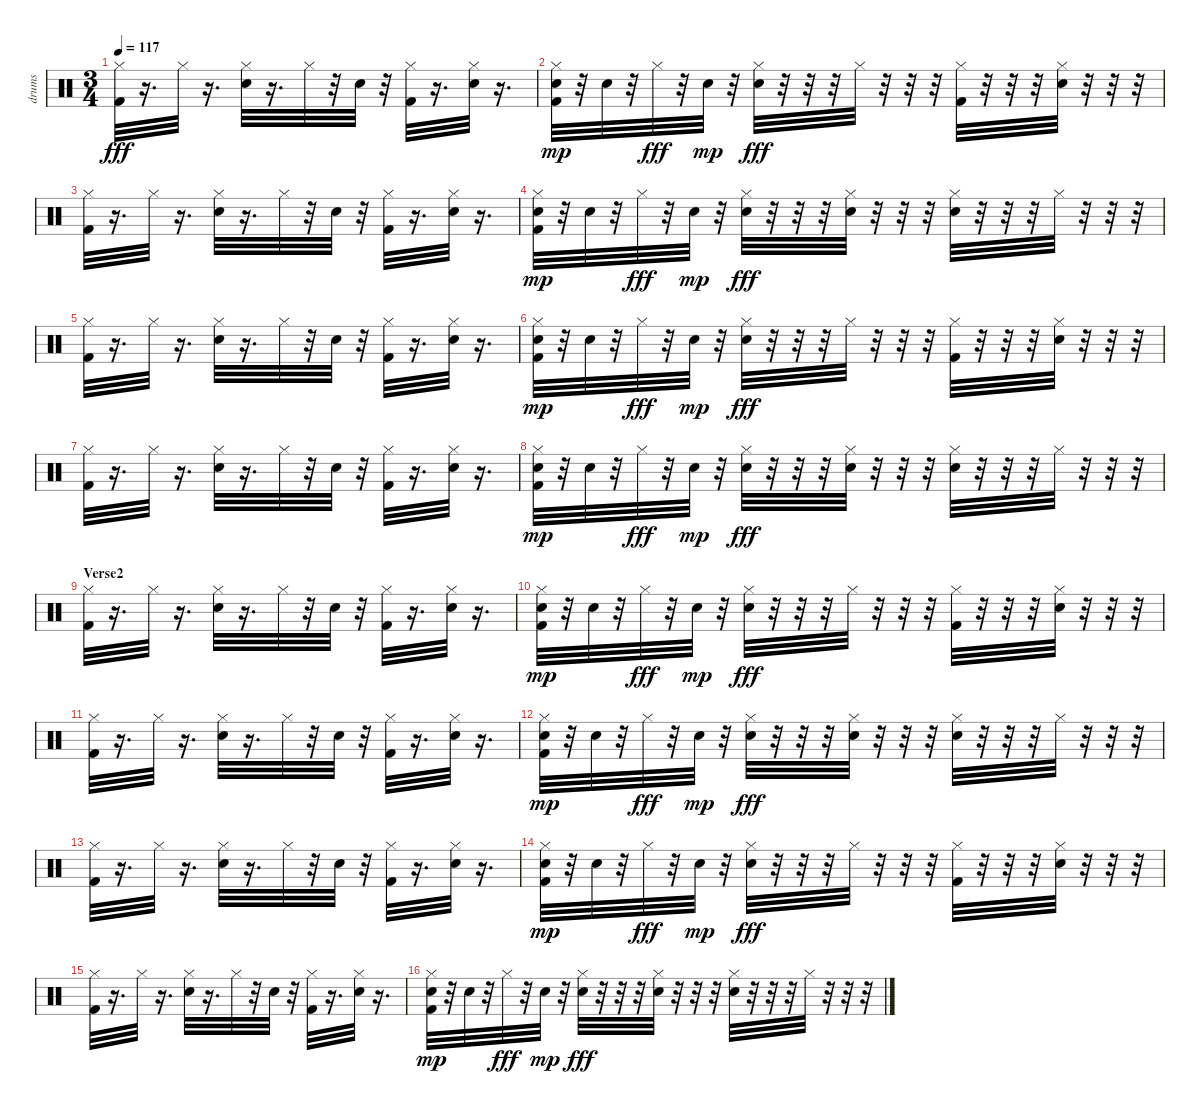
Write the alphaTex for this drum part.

\track ("drums" "drums") {instrument percussion}
\staff {score}
\articulation defaults
\ts (3 4)
\tempo 117
\clef neutral
\ks c
("Hi-Hat (closed)" "Kick (hit) 2").32{dy fff} r.16{d} "Hi-Hat (closed)".32 r.16{d} ("Electric Snare (hit)" "Hi-Hat (closed)").32 r.16{d} "Hi-Hat (closed)".32 r.32 "Electric Snare (hit)".32 r.32 ("Hi-Hat (closed)" "Kick (hit) 2").32 r.16{d} ("Electric Snare (hit)" "Hi-Hat (closed)").32 r.16{d} |
("Hi-Hat (closed)" "Kick (hit) 2" "Electric Snare (hit)").32{dy mp} r.32 "Electric Snare (hit)".32 r.32 "Hi-Hat (closed)".32{dy fff} r.32 "Electric Snare (hit)".32{dy mp} r.32 ("Electric Snare (hit)" "Hi-Hat (closed)").32{dy fff} r.32 r.32 r.32 "Hi-Hat (closed)".32 r.32 r.32 r.32 ("Hi-Hat (closed)" "Kick (hit) 2").32 r.32 r.32 r.32 ("Electric Snare (hit)" "Hi-Hat (closed)").32 r.32 r.32 r.32 |
("Hi-Hat (closed)" "Kick (hit) 2").32 r.16{d} "Hi-Hat (closed)".32 r.16{d} ("Electric Snare (hit)" "Hi-Hat (closed)").32 r.16{d} "Hi-Hat (closed)".32 r.32 "Electric Snare (hit)".32 r.32 ("Hi-Hat (closed)" "Kick (hit) 2").32 r.16{d} ("Electric Snare (hit)" "Hi-Hat (closed)").32 r.16{d} |
("Hi-Hat (closed)" "Kick (hit) 2" "Electric Snare (hit)").32{dy mp} r.32 "Electric Snare (hit)".32 r.32 "Hi-Hat (closed)".32{dy fff} r.32 "Electric Snare (hit)".32{dy mp} r.32 ("Electric Snare (hit)" "Hi-Hat (closed)").32{dy fff} r.32 r.32 r.32 ("Hi-Hat (closed)" "Electric Snare (hit)").32 r.32 r.32 r.32 ("Hi-Hat (closed)" "Electric Snare (hit)").32 r.32 r.32 r.32 "Hi-Hat (closed)".32 r.32 r.32 r.32 |
("Hi-Hat (closed)" "Kick (hit) 2").32 r.16{d} "Hi-Hat (closed)".32 r.16{d} ("Electric Snare (hit)" "Hi-Hat (closed)").32 r.16{d} "Hi-Hat (closed)".32 r.32 "Electric Snare (hit)".32 r.32 ("Hi-Hat (closed)" "Kick (hit) 2").32 r.16{d} ("Electric Snare (hit)" "Hi-Hat (closed)").32 r.16{d} |
("Hi-Hat (closed)" "Kick (hit) 2" "Electric Snare (hit)").32{dy mp} r.32 "Electric Snare (hit)".32 r.32 "Hi-Hat (closed)".32{dy fff} r.32 "Electric Snare (hit)".32{dy mp} r.32 ("Electric Snare (hit)" "Hi-Hat (closed)").32{dy fff} r.32 r.32 r.32 "Hi-Hat (closed)".32 r.32 r.32 r.32 ("Hi-Hat (closed)" "Kick (hit) 2").32 r.32 r.32 r.32 ("Electric Snare (hit)" "Hi-Hat (closed)").32 r.32 r.32 r.32 |
("Hi-Hat (closed)" "Kick (hit) 2").32 r.16{d} "Hi-Hat (closed)".32 r.16{d} ("Electric Snare (hit)" "Hi-Hat (closed)").32 r.16{d} "Hi-Hat (closed)".32 r.32 "Electric Snare (hit)".32 r.32 ("Hi-Hat (closed)" "Kick (hit) 2").32 r.16{d} ("Electric Snare (hit)" "Hi-Hat (closed)").32 r.16{d} |
("Hi-Hat (closed)" "Kick (hit) 2" "Electric Snare (hit)").32{dy mp} r.32 "Electric Snare (hit)".32 r.32 "Hi-Hat (closed)".32{dy fff} r.32 "Electric Snare (hit)".32{dy mp} r.32 ("Electric Snare (hit)" "Hi-Hat (closed)").32{dy fff} r.32 r.32 r.32 ("Hi-Hat (closed)" "Electric Snare (hit)").32 r.32 r.32 r.32 ("Hi-Hat (closed)" "Electric Snare (hit)").32 r.32 r.32 r.32 "Hi-Hat (closed)".32 r.32 r.32 r.32 |
\section ("" "Verse2")
("Hi-Hat (closed)" "Kick (hit) 2").32 r.16{d} "Hi-Hat (closed)".32 r.16{d} ("Electric Snare (hit)" "Hi-Hat (closed)").32 r.16{d} "Hi-Hat (closed)".32 r.32 "Electric Snare (hit)".32 r.32 ("Hi-Hat (closed)" "Kick (hit) 2").32 r.16{d} ("Electric Snare (hit)" "Hi-Hat (closed)").32 r.16{d} |
("Hi-Hat (closed)" "Kick (hit) 2" "Electric Snare (hit)").32{dy mp} r.32 "Electric Snare (hit)".32 r.32 "Hi-Hat (closed)".32{dy fff} r.32 "Electric Snare (hit)".32{dy mp} r.32 ("Electric Snare (hit)" "Hi-Hat (closed)").32{dy fff} r.32 r.32 r.32 "Hi-Hat (closed)".32 r.32 r.32 r.32 ("Hi-Hat (closed)" "Kick (hit) 2").32 r.32 r.32 r.32 ("Electric Snare (hit)" "Hi-Hat (closed)").32 r.32 r.32 r.32 |
("Hi-Hat (closed)" "Kick (hit) 2").32 r.16{d} "Hi-Hat (closed)".32 r.16{d} ("Electric Snare (hit)" "Hi-Hat (closed)").32 r.16{d} "Hi-Hat (closed)".32 r.32 "Electric Snare (hit)".32 r.32 ("Hi-Hat (closed)" "Kick (hit) 2").32 r.16{d} ("Electric Snare (hit)" "Hi-Hat (closed)").32 r.16{d} |
("Hi-Hat (closed)" "Kick (hit) 2" "Electric Snare (hit)").32{dy mp} r.32 "Electric Snare (hit)".32 r.32 "Hi-Hat (closed)".32{dy fff} r.32 "Electric Snare (hit)".32{dy mp} r.32 ("Electric Snare (hit)" "Hi-Hat (closed)").32{dy fff} r.32 r.32 r.32 ("Hi-Hat (closed)" "Electric Snare (hit)").32 r.32 r.32 r.32 ("Hi-Hat (closed)" "Electric Snare (hit)").32 r.32 r.32 r.32 "Hi-Hat (closed)".32 r.32 r.32 r.32 |
("Hi-Hat (closed)" "Kick (hit) 2").32 r.16{d} "Hi-Hat (closed)".32 r.16{d} ("Electric Snare (hit)" "Hi-Hat (closed)").32 r.16{d} "Hi-Hat (closed)".32 r.32 "Electric Snare (hit)".32 r.32 ("Hi-Hat (closed)" "Kick (hit) 2").32 r.16{d} ("Electric Snare (hit)" "Hi-Hat (closed)").32 r.16{d} |
("Hi-Hat (closed)" "Kick (hit) 2" "Electric Snare (hit)").32{dy mp} r.32 "Electric Snare (hit)".32 r.32 "Hi-Hat (closed)".32{dy fff} r.32 "Electric Snare (hit)".32{dy mp} r.32 ("Electric Snare (hit)" "Hi-Hat (closed)").32{dy fff} r.32 r.32 r.32 "Hi-Hat (closed)".32 r.32 r.32 r.32 ("Hi-Hat (closed)" "Kick (hit) 2").32 r.32 r.32 r.32 ("Electric Snare (hit)" "Hi-Hat (closed)").32 r.32 r.32 r.32 |
("Hi-Hat (closed)" "Kick (hit) 2").32 r.16{d} "Hi-Hat (closed)".32 r.16{d} ("Electric Snare (hit)" "Hi-Hat (closed)").32 r.16{d} "Hi-Hat (closed)".32 r.32 "Electric Snare (hit)".32 r.32 ("Hi-Hat (closed)" "Kick (hit) 2").32 r.16{d} ("Electric Snare (hit)" "Hi-Hat (closed)").32 r.16{d} |
("Hi-Hat (closed)" "Kick (hit) 2" "Electric Snare (hit)").32{dy mp} r.32 "Electric Snare (hit)".32 r.32 "Hi-Hat (closed)".32{dy fff} r.32 "Electric Snare (hit)".32{dy mp} r.32 ("Electric Snare (hit)" "Hi-Hat (closed)").32{dy fff} r.32 r.32 r.32 ("Hi-Hat (closed)" "Electric Snare (hit)").32 r.32 r.32 r.32 ("Hi-Hat (closed)" "Electric Snare (hit)").32 r.32 r.32 r.32 "Hi-Hat (closed)".32 r.32 r.32 r.32
